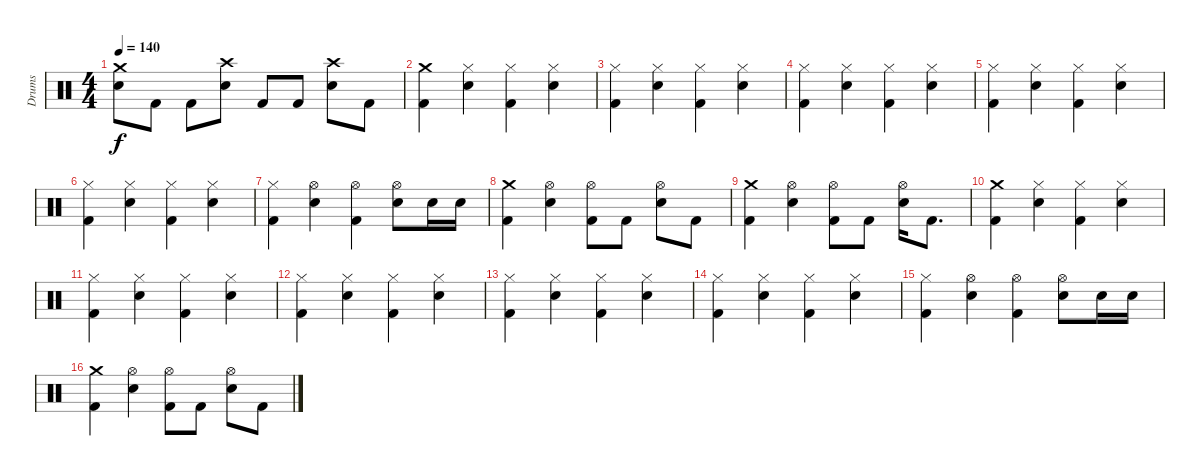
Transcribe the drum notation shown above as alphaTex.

\track ("Drums" "Drums") {instrument percussion}
\staff {score}
\articulation defaults
\ts (4 4)
\tempo 140
\clef neutral
\ks c
("Crash medium (hit)" "Electric Snare (hit)").8{dy f} "Kick (hit) 2".8 "Kick (hit) 2".8 ("Crash high (hit)" "Electric Snare (hit)").8 "Kick (hit) 2".8 "Kick (hit) 2".8 ("Crash high (hit)" "Electric Snare (hit)").8 "Kick (hit) 2".8 |
("Crash medium (hit)" "Kick (hit) 2").4 ("Hi-Hat (closed)" "Electric Snare (hit)").4 ("Hi-Hat (closed)" "Kick (hit) 2").4 ("Hi-Hat (closed)" "Electric Snare (hit)").4 |
("Hi-Hat (closed)" "Kick (hit) 2").4 ("Hi-Hat (closed)" "Electric Snare (hit)").4 ("Hi-Hat (closed)" "Kick (hit) 2").4 ("Hi-Hat (closed)" "Electric Snare (hit)").4 |
("Hi-Hat (closed)" "Kick (hit) 2").4 ("Hi-Hat (closed)" "Electric Snare (hit)").4 ("Hi-Hat (closed)" "Kick (hit) 2").4 ("Hi-Hat (closed)" "Electric Snare (hit)").4 |
("Hi-Hat (closed)" "Kick (hit) 2").4 ("Hi-Hat (closed)" "Electric Snare (hit)").4 ("Hi-Hat (closed)" "Kick (hit) 2").4 ("Hi-Hat (closed)" "Electric Snare (hit)").4 |
("Hi-Hat (closed)" "Kick (hit) 2").4 ("Hi-Hat (closed)" "Electric Snare (hit)").4 ("Hi-Hat (closed)" "Kick (hit) 2").4 ("Hi-Hat (closed)" "Electric Snare (hit)").4 |
("Hi-Hat (closed)" "Kick (hit) 2").4 ("Hi-Hat (open)" "Electric Snare (hit)").4 ("Hi-Hat (open)" "Kick (hit) 2").4 ("Hi-Hat (open)" "Electric Snare (hit)").8 "Electric Snare (hit)".16 "Electric Snare (hit)".16 |
("Crash medium (hit)" "Kick (hit) 2").4 ("Hi-Hat (open)" "Electric Snare (hit)").4 ("Hi-Hat (open)" "Kick (hit) 2").8 "Kick (hit) 2".8 ("Hi-Hat (open)" "Electric Snare (hit)").8 "Kick (hit) 2".8 |
("Crash medium (hit)" "Kick (hit) 2").4 ("Hi-Hat (open)" "Electric Snare (hit)").4 ("Hi-Hat (open)" "Kick (hit) 2").8 "Kick (hit) 2".8 ("Hi-Hat (open)" "Electric Snare (hit)").16 "Kick (hit) 2".8{d} |
("Crash medium (hit)" "Kick (hit) 2").4 ("Hi-Hat (closed)" "Electric Snare (hit)").4 ("Hi-Hat (closed)" "Kick (hit) 2").4 ("Hi-Hat (closed)" "Electric Snare (hit)").4 |
("Hi-Hat (closed)" "Kick (hit) 2").4 ("Hi-Hat (closed)" "Electric Snare (hit)").4 ("Hi-Hat (closed)" "Kick (hit) 2").4 ("Hi-Hat (closed)" "Electric Snare (hit)").4 |
("Hi-Hat (closed)" "Kick (hit) 2").4 ("Hi-Hat (closed)" "Electric Snare (hit)").4 ("Hi-Hat (closed)" "Kick (hit) 2").4 ("Hi-Hat (closed)" "Electric Snare (hit)").4 |
("Hi-Hat (closed)" "Kick (hit) 2").4 ("Hi-Hat (closed)" "Electric Snare (hit)").4 ("Hi-Hat (closed)" "Kick (hit) 2").4 ("Hi-Hat (closed)" "Electric Snare (hit)").4 |
("Hi-Hat (closed)" "Kick (hit) 2").4 ("Hi-Hat (closed)" "Electric Snare (hit)").4 ("Hi-Hat (closed)" "Kick (hit) 2").4 ("Hi-Hat (closed)" "Electric Snare (hit)").4 |
("Hi-Hat (closed)" "Kick (hit) 2").4 ("Hi-Hat (open)" "Electric Snare (hit)").4 ("Hi-Hat (open)" "Kick (hit) 2").4 ("Hi-Hat (open)" "Electric Snare (hit)").8 "Electric Snare (hit)".16 "Electric Snare (hit)".16 |
("Crash medium (hit)" "Kick (hit) 2").4 ("Hi-Hat (open)" "Electric Snare (hit)").4 ("Hi-Hat (open)" "Kick (hit) 2").8 "Kick (hit) 2".8 ("Hi-Hat (open)" "Electric Snare (hit)").8 "Kick (hit) 2".8
